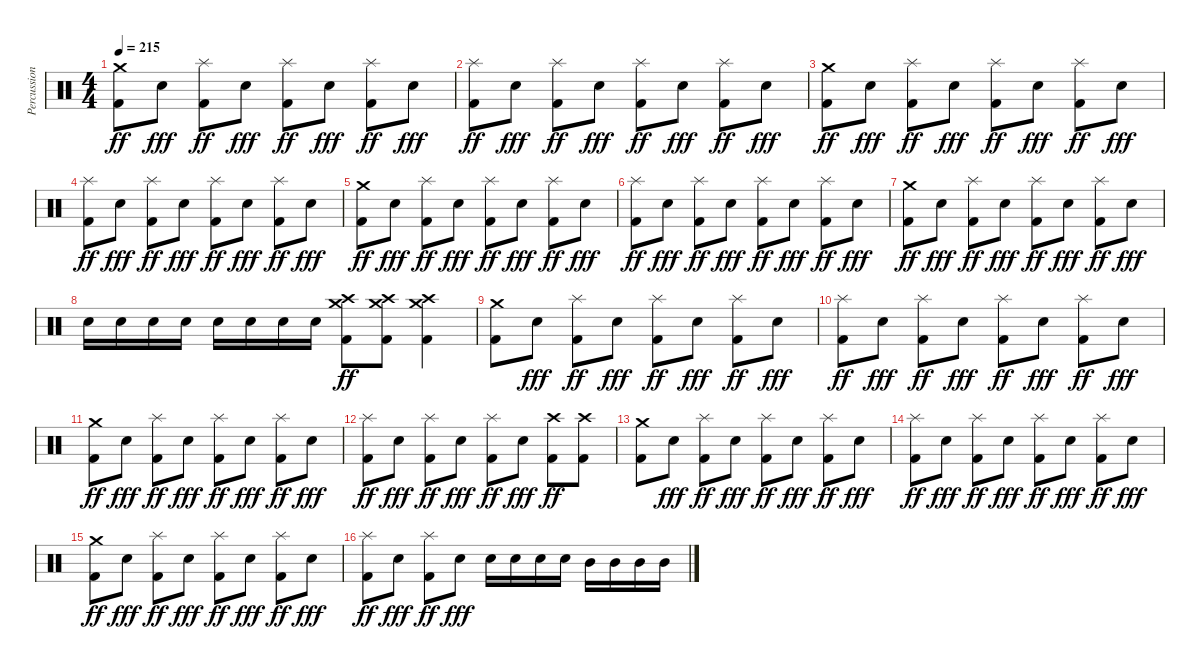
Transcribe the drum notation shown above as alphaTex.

\track ("Percussion" "Percussion") {instrument percussion}
\staff {score}
\articulation defaults
\ts (4 4)
\tempo 215
\clef neutral
\ks c
("Kick (hit) 2" "Crash medium (hit)").8{dy ff} "Electric Snare (hit)".8{dy fff} ("Kick (hit) 2" "Splash (hit)").8{dy ff} "Electric Snare (hit)".8{dy fff} ("Kick (hit) 2" "Splash (hit)").8{dy ff} "Electric Snare (hit)".8{dy fff} ("Kick (hit) 2" "Splash (hit)").8{dy ff} "Electric Snare (hit)".8{dy fff} |
("Kick (hit) 2" "Splash (hit)").8{dy ff} "Electric Snare (hit)".8{dy fff} ("Kick (hit) 2" "Splash (hit)").8{dy ff} "Electric Snare (hit)".8{dy fff} ("Kick (hit) 2" "Splash (hit)").8{dy ff} "Electric Snare (hit)".8{dy fff} ("Kick (hit) 2" "Splash (hit)").8{dy ff} "Electric Snare (hit)".8{dy fff} |
("Kick (hit) 2" "Crash medium (hit)").8{dy ff} "Electric Snare (hit)".8{dy fff} ("Kick (hit) 2" "Splash (hit)").8{dy ff} "Electric Snare (hit)".8{dy fff} ("Kick (hit) 2" "Splash (hit)").8{dy ff} "Electric Snare (hit)".8{dy fff} ("Kick (hit) 2" "Splash (hit)").8{dy ff} "Electric Snare (hit)".8{dy fff} |
("Kick (hit) 2" "Splash (hit)").8{dy ff} "Electric Snare (hit)".8{dy fff} ("Kick (hit) 2" "Splash (hit)").8{dy ff} "Electric Snare (hit)".8{dy fff} ("Kick (hit) 2" "Splash (hit)").8{dy ff} "Electric Snare (hit)".8{dy fff} ("Kick (hit) 2" "Splash (hit)").8{dy ff} "Electric Snare (hit)".8{dy fff} |
("Kick (hit) 2" "Crash medium (hit)").8{dy ff} "Electric Snare (hit)".8{dy fff} ("Kick (hit) 2" "Splash (hit)").8{dy ff} "Electric Snare (hit)".8{dy fff} ("Kick (hit) 2" "Splash (hit)").8{dy ff} "Electric Snare (hit)".8{dy fff} ("Kick (hit) 2" "Splash (hit)").8{dy ff} "Electric Snare (hit)".8{dy fff} |
("Kick (hit) 2" "Splash (hit)").8{dy ff} "Electric Snare (hit)".8{dy fff} ("Kick (hit) 2" "Splash (hit)").8{dy ff} "Electric Snare (hit)".8{dy fff} ("Kick (hit) 2" "Splash (hit)").8{dy ff} "Electric Snare (hit)".8{dy fff} ("Kick (hit) 2" "Splash (hit)").8{dy ff} "Electric Snare (hit)".8{dy fff} |
("Kick (hit) 2" "Crash medium (hit)").8{dy ff} "Electric Snare (hit)".8{dy fff} ("Kick (hit) 2" "Splash (hit)").8{dy ff} "Electric Snare (hit)".8{dy fff} ("Kick (hit) 2" "Splash (hit)").8{dy ff} "Electric Snare (hit)".8{dy fff} ("Kick (hit) 2" "Splash (hit)").8{dy ff} "Electric Snare (hit)".8{dy fff} |
"Electric Snare (hit)".16 "Electric Snare (hit)".16 "Electric Snare (hit)".16 "Electric Snare (hit)".16 "Electric Snare (hit)".16 "Electric Snare (hit)".16 "Electric Snare (hit)".16 "Electric Snare (hit)".16 ("Kick (hit) 2" "Crash medium (hit)" "Crash high (hit)").8{dy ff} ("Kick (hit) 2" "Crash medium (hit)" "Crash high (hit)").8 ("Kick (hit) 2" "Crash medium (hit)" "Crash high (hit)").4 |
("Kick (hit) 2" "Crash medium (hit)").8 "Electric Snare (hit)".8{dy fff} ("Kick (hit) 2" "Splash (hit)").8{dy ff} "Electric Snare (hit)".8{dy fff} ("Kick (hit) 2" "Splash (hit)").8{dy ff} "Electric Snare (hit)".8{dy fff} ("Kick (hit) 2" "Splash (hit)").8{dy ff} "Electric Snare (hit)".8{dy fff} |
("Kick (hit) 2" "Splash (hit)").8{dy ff} "Electric Snare (hit)".8{dy fff} ("Kick (hit) 2" "Splash (hit)").8{dy ff} "Electric Snare (hit)".8{dy fff} ("Kick (hit) 2" "Splash (hit)").8{dy ff} "Electric Snare (hit)".8{dy fff} ("Kick (hit) 2" "Splash (hit)").8{dy ff} "Electric Snare (hit)".8{dy fff} |
("Kick (hit) 2" "Crash medium (hit)").8{dy ff} "Electric Snare (hit)".8{dy fff} ("Kick (hit) 2" "Splash (hit)").8{dy ff} "Electric Snare (hit)".8{dy fff} ("Kick (hit) 2" "Splash (hit)").8{dy ff} "Electric Snare (hit)".8{dy fff} ("Kick (hit) 2" "Splash (hit)").8{dy ff} "Electric Snare (hit)".8{dy fff} |
("Kick (hit) 2" "Splash (hit)").8{dy ff} "Electric Snare (hit)".8{dy fff} ("Kick (hit) 2" "Splash (hit)").8{dy ff} "Electric Snare (hit)".8{dy fff} ("Kick (hit) 2" "Splash (hit)").8{dy ff} "Electric Snare (hit)".8{dy fff} ("Kick (hit) 2" "Crash high (hit)").8{dy ff} ("Kick (hit) 2" "Crash high (hit)").8 |
("Kick (hit) 2" "Crash medium (hit)").8 "Electric Snare (hit)".8{dy fff} ("Kick (hit) 2" "Splash (hit)").8{dy ff} "Electric Snare (hit)".8{dy fff} ("Kick (hit) 2" "Splash (hit)").8{dy ff} "Electric Snare (hit)".8{dy fff} ("Kick (hit) 2" "Splash (hit)").8{dy ff} "Electric Snare (hit)".8{dy fff} |
("Kick (hit) 2" "Splash (hit)").8{dy ff} "Electric Snare (hit)".8{dy fff} ("Kick (hit) 2" "Splash (hit)").8{dy ff} "Electric Snare (hit)".8{dy fff} ("Kick (hit) 2" "Splash (hit)").8{dy ff} "Electric Snare (hit)".8{dy fff} ("Kick (hit) 2" "Splash (hit)").8{dy ff} "Electric Snare (hit)".8{dy fff} |
("Kick (hit) 2" "Crash medium (hit)").8{dy ff} "Electric Snare (hit)".8{dy fff} ("Kick (hit) 2" "Splash (hit)").8{dy ff} "Electric Snare (hit)".8{dy fff} ("Kick (hit) 2" "Splash (hit)").8{dy ff} "Electric Snare (hit)".8{dy fff} ("Kick (hit) 2" "Splash (hit)").8{dy ff} "Electric Snare (hit)".8{dy fff} |
("Kick (hit) 2" "Splash (hit)").8{dy ff} "Electric Snare (hit)".8{dy fff} ("Kick (hit) 2" "Splash (hit)").8{dy ff} "Electric Snare (hit)".8{dy fff} "Electric Snare (hit)".16 "Electric Snare (hit)".16 "Electric Snare (hit)".16 "Electric Snare (hit)".16 "Mid Tom (hit)".16 "Mid Tom (hit)".16 "Mid Tom (hit)".16 "Mid Tom (hit)".16
